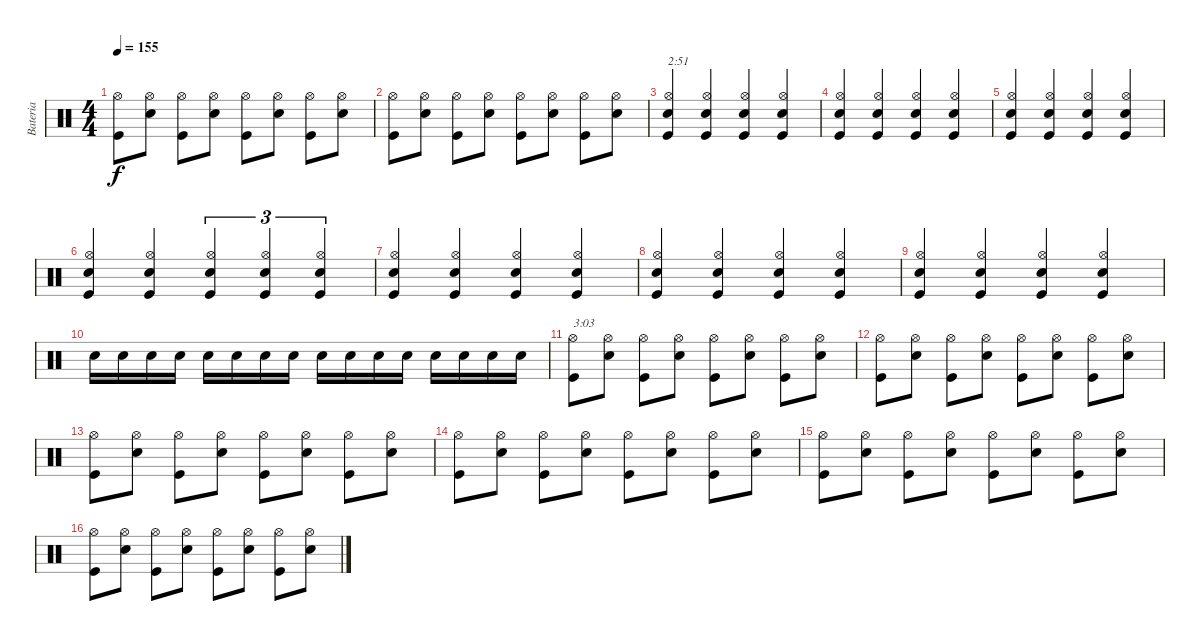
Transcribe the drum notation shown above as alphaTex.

\track ("Bateria" "Bateria") {instrument percussion}
\staff {score}
\articulation defaults
\ts (4 4)
\tempo 155
\clef neutral
\ks c
("Kick (hit)" "Hi-Hat (open)").8{dy f} ("Snare (hit) 2" "Hi-Hat (open)").8 ("Kick (hit)" "Hi-Hat (open)").8 ("Snare (hit) 2" "Hi-Hat (open)").8 ("Kick (hit)" "Hi-Hat (open)").8 ("Snare (hit) 2" "Hi-Hat (open)").8 ("Kick (hit)" "Hi-Hat (open)").8 ("Snare (hit) 2" "Hi-Hat (open)").8 |
("Kick (hit)" "Hi-Hat (open)").8 ("Snare (hit) 2" "Hi-Hat (open)").8 ("Kick (hit)" "Hi-Hat (open)").8 ("Snare (hit) 2" "Hi-Hat (open)").8 ("Kick (hit)" "Hi-Hat (open)").8 ("Snare (hit) 2" "Hi-Hat (open)").8 ("Kick (hit)" "Hi-Hat (open)").8 ("Snare (hit) 2" "Hi-Hat (open)").8 |
("Kick (hit)" "Snare (hit) 2" "Hi-Hat (open)").4{txt "2:51"} ("Kick (hit)" "Snare (hit) 2" "Hi-Hat (open)").4 ("Kick (hit)" "Snare (hit) 2" "Hi-Hat (open)").4 ("Kick (hit)" "Snare (hit) 2" "Hi-Hat (open)").4 |
("Kick (hit)" "Snare (hit) 2" "Hi-Hat (open)").4 ("Kick (hit)" "Snare (hit) 2" "Hi-Hat (open)").4 ("Kick (hit)" "Snare (hit) 2" "Hi-Hat (open)").4 ("Kick (hit)" "Snare (hit) 2" "Hi-Hat (open)").4 |
("Kick (hit)" "Snare (hit) 2" "Hi-Hat (open)").4 ("Kick (hit)" "Snare (hit) 2" "Hi-Hat (open)").4 ("Kick (hit)" "Snare (hit) 2" "Hi-Hat (open)").4 ("Kick (hit)" "Snare (hit) 2" "Hi-Hat (open)").4 |
("Kick (hit)" "Snare (hit) 2" "Hi-Hat (open)").4 ("Kick (hit)" "Snare (hit) 2" "Hi-Hat (open)").4 ("Kick (hit)" "Snare (hit) 2" "Hi-Hat (open)").4{tu (3 2)} ("Kick (hit)" "Snare (hit) 2" "Hi-Hat (open)").4{tu (3 2)} ("Kick (hit)" "Snare (hit) 2" "Hi-Hat (open)").4{tu (3 2)} |
("Kick (hit)" "Snare (hit) 2" "Hi-Hat (open)").4 ("Kick (hit)" "Snare (hit) 2" "Hi-Hat (open)").4 ("Kick (hit)" "Snare (hit) 2" "Hi-Hat (open)").4 ("Kick (hit)" "Snare (hit) 2" "Hi-Hat (open)").4 |
("Kick (hit)" "Snare (hit) 2" "Hi-Hat (open)").4 ("Kick (hit)" "Snare (hit) 2" "Hi-Hat (open)").4 ("Kick (hit)" "Snare (hit) 2" "Hi-Hat (open)").4 ("Kick (hit)" "Snare (hit) 2" "Hi-Hat (open)").4 |
("Kick (hit)" "Snare (hit) 2" "Hi-Hat (open)").4 ("Kick (hit)" "Snare (hit) 2" "Hi-Hat (open)").4 ("Kick (hit)" "Snare (hit) 2" "Hi-Hat (open)").4 ("Kick (hit)" "Snare (hit) 2" "Hi-Hat (open)").4 |
"Snare (hit) 2".16 "Snare (hit) 2".16 "Snare (hit) 2".16 "Snare (hit) 2".16 "Snare (hit) 2".16 "Snare (hit) 2".16 "Snare (hit) 2".16 "Snare (hit) 2".16 "Snare (hit) 2".16 "Snare (hit) 2".16 "Snare (hit) 2".16 "Snare (hit) 2".16 "Snare (hit) 2".16 "Snare (hit) 2".16 "Snare (hit) 2".16 "Snare (hit) 2".16 |
("Kick (hit)" "Hi-Hat (open)").8{txt "3:03"} ("Snare (hit) 2" "Hi-Hat (open)").8 ("Kick (hit)" "Hi-Hat (open)").8 ("Snare (hit) 2" "Hi-Hat (open)").8 ("Kick (hit)" "Hi-Hat (open)").8 ("Snare (hit) 2" "Hi-Hat (open)").8 ("Kick (hit)" "Hi-Hat (open)").8 ("Snare (hit) 2" "Hi-Hat (open)").8 |
("Kick (hit)" "Hi-Hat (open)").8 ("Snare (hit) 2" "Hi-Hat (open)").8 ("Kick (hit)" "Hi-Hat (open)").8 ("Snare (hit) 2" "Hi-Hat (open)").8 ("Kick (hit)" "Hi-Hat (open)").8 ("Snare (hit) 2" "Hi-Hat (open)").8 ("Kick (hit)" "Hi-Hat (open)").8 ("Snare (hit) 2" "Hi-Hat (open)").8 |
("Kick (hit)" "Hi-Hat (open)").8 ("Snare (hit) 2" "Hi-Hat (open)").8 ("Kick (hit)" "Hi-Hat (open)").8 ("Snare (hit) 2" "Hi-Hat (open)").8 ("Kick (hit)" "Hi-Hat (open)").8 ("Snare (hit) 2" "Hi-Hat (open)").8 ("Kick (hit)" "Hi-Hat (open)").8 ("Snare (hit) 2" "Hi-Hat (open)").8 |
("Kick (hit)" "Hi-Hat (open)").8 ("Snare (hit) 2" "Hi-Hat (open)").8 ("Kick (hit)" "Hi-Hat (open)").8 ("Snare (hit) 2" "Hi-Hat (open)").8 ("Kick (hit)" "Hi-Hat (open)").8 ("Snare (hit) 2" "Hi-Hat (open)").8 ("Kick (hit)" "Hi-Hat (open)").8 ("Snare (hit) 2" "Hi-Hat (open)").8 |
("Kick (hit)" "Hi-Hat (open)").8 ("Snare (hit) 2" "Hi-Hat (open)").8 ("Kick (hit)" "Hi-Hat (open)").8 ("Snare (hit) 2" "Hi-Hat (open)").8 ("Kick (hit)" "Hi-Hat (open)").8 ("Snare (hit) 2" "Hi-Hat (open)").8 ("Kick (hit)" "Hi-Hat (open)").8 ("Snare (hit) 2" "Hi-Hat (open)").8 |
("Kick (hit)" "Hi-Hat (open)").8 ("Snare (hit) 2" "Hi-Hat (open)").8 ("Kick (hit)" "Hi-Hat (open)").8 ("Snare (hit) 2" "Hi-Hat (open)").8 ("Kick (hit)" "Hi-Hat (open)").8 ("Snare (hit) 2" "Hi-Hat (open)").8 ("Kick (hit)" "Hi-Hat (open)").8 ("Snare (hit) 2" "Hi-Hat (open)").8
